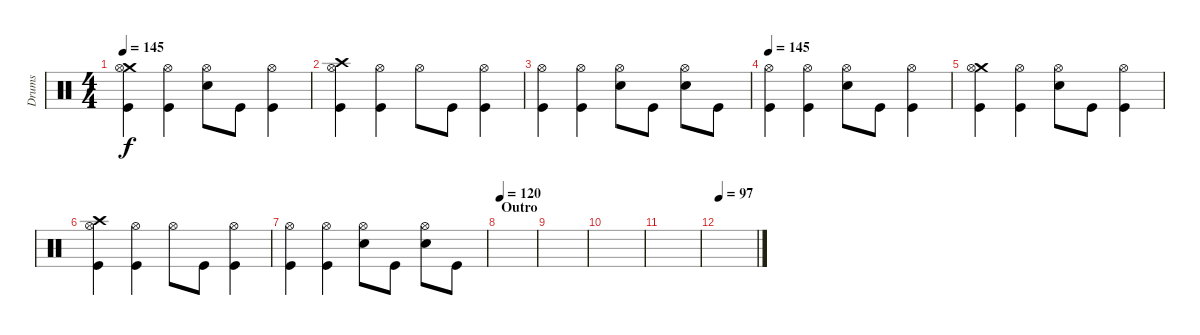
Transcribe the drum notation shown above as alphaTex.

\track ("Drums" "Drums") {instrument percussion}
\staff {score}
\articulation defaults
\ts (4 4)
\tempo 145
\clef neutral
\ks c
("Crash medium (hit)" "Hi-Hat (open)" "Kick (hit)").4{dy f} ("Hi-Hat (open)" "Kick (hit)").4 ("Hi-Hat (open)" "Snare (hit) 2").8 "Kick (hit)".8 ("Hi-Hat (open)" "Kick (hit)").4 |
("Crash high (hit)" "Hi-Hat (open)" "Kick (hit)").4 ("Hi-Hat (open)" "Kick (hit)").4 "Hi-Hat (open)".8 "Kick (hit)".8 ("Hi-Hat (open)" "Kick (hit)").4 |
("Hi-Hat (open)" "Kick (hit)").4 ("Hi-Hat (open)" "Kick (hit)").4 ("Hi-Hat (open)" "Snare (hit) 2").8 "Kick (hit)".8 ("Hi-Hat (open)" "Snare (hit) 2").8 "Kick (hit)".8 |
\tempo 145
("Hi-Hat (open)" "Kick (hit)").4 ("Hi-Hat (open)" "Kick (hit)").4 ("Hi-Hat (open)" "Snare (hit) 2").8 "Kick (hit)".8 ("Hi-Hat (open)" "Kick (hit)").4 |
("Crash medium (hit)" "Hi-Hat (open)" "Kick (hit)").4 ("Hi-Hat (open)" "Kick (hit)").4 ("Hi-Hat (open)" "Snare (hit) 2").8 "Kick (hit)".8 ("Hi-Hat (open)" "Kick (hit)").4 |
("Crash high (hit)" "Hi-Hat (open)" "Kick (hit)").4 ("Hi-Hat (open)" "Kick (hit)").4 "Hi-Hat (open)".8 "Kick (hit)".8 ("Hi-Hat (open)" "Kick (hit)").4 |
("Hi-Hat (open)" "Kick (hit)").4 ("Hi-Hat (open)" "Kick (hit)").4 ("Hi-Hat (open)" "Snare (hit) 2").8 "Kick (hit)".8 ("Hi-Hat (open)" "Snare (hit) 2").8 "Kick (hit)".8 |
\section ("" "Outro")
\tempo 120
|
|
|
|
\tempo 97
